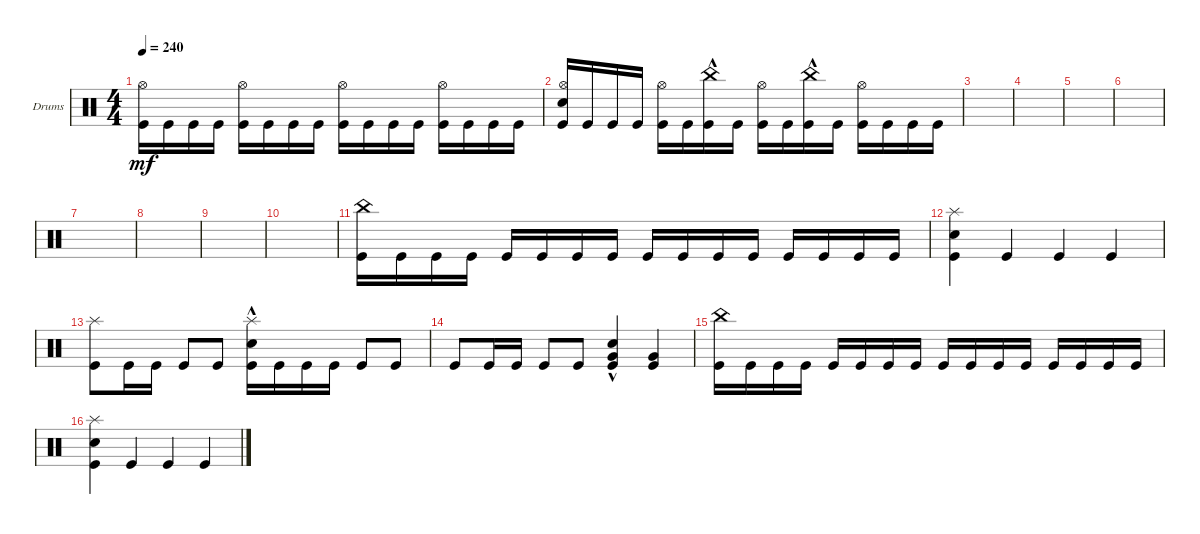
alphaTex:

\defaultSystemsLayout 4
\bracketExtendMode groupsimilarinstruments
\firstSystemTrackNameOrientation horizontal
\otherSystemsTrackNameOrientation horizontal
\track ("Drumkit" "Drums") {mute instrument percussion}
\staff {score}
\articulation defaults
\ts (4 4)
\tempo 240
\clef neutral
\ks c
("Kick (hit)" "Hi-Hat (open)").16{dy mf} "Kick (hit)".16 "Kick (hit)".16 "Kick (hit)".16 ("Kick (hit)" "Hi-Hat (open)").16 "Kick (hit)".16 "Kick (hit)".16 "Kick (hit)".16 ("Kick (hit)" "Hi-Hat (open)").16 "Kick (hit)".16 "Kick (hit)".16 "Kick (hit)".16 ("Kick (hit)" "Hi-Hat (open)").16 "Kick (hit)".16 "Kick (hit)".16 "Kick (hit)".16 |
("Kick (hit)" "Hi-Hat (open)" "Snare (hit) 2").16 "Kick (hit)".16 "Kick (hit)".16 "Kick (hit)".16 ("Kick (hit)" "Hi-Hat (open)").16 "Kick (hit)".16 ("Kick (hit)" "China (hit)"{hac}).16 "Kick (hit)".16 ("Kick (hit)" "Hi-Hat (open)").16 "Kick (hit)".16 ("Kick (hit)" "China (hit)"{hac}).16 "Kick (hit)".16 ("Kick (hit)" "Hi-Hat (open)").16 "Kick (hit)".16 "Kick (hit)".16 "Kick (hit)".16 |
|
|
|
|
|
|
|
|
("Kick (hit)" "China (hit)").16 "Kick (hit)".16 "Kick (hit)".16 "Kick (hit)".16 "Kick (hit)".16 "Kick (hit)".16 "Kick (hit)".16 "Kick (hit)".16 "Kick (hit)".16 "Kick (hit)".16 "Kick (hit)".16 "Kick (hit)".16 "Kick (hit)".16 "Kick (hit)".16 "Kick (hit)".16 "Kick (hit)".16 |
("Snare (hit) 2" "Kick (hit)" "Splash (hit)").4 "Kick (hit)".4 "Kick (hit)".4 "Kick (hit)".4 |
("Kick (hit)" "Splash (hit)").8 "Kick (hit)".16 "Kick (hit)".16 "Kick (hit)".8 "Kick (hit)".8 ("Kick (hit)" "Splash (hit)" "Snare (hit) 2"{hac}).16 "Kick (hit)".16 "Kick (hit)".16 "Kick (hit)".16 "Kick (hit)".8 "Kick (hit)".8 |
"Kick (hit)".8 "Kick (hit)".16 "Kick (hit)".16 "Kick (hit)".8 "Kick (hit)".8 ("Kick (hit)" "Very Low Tom (hit)" "Snare (hit) 2"{hac}).4 ("Kick (hit)" "Very Low Tom (hit)").4 |
("Kick (hit)" "China (hit)").16 "Kick (hit)".16 "Kick (hit)".16 "Kick (hit)".16 "Kick (hit)".16 "Kick (hit)".16 "Kick (hit)".16 "Kick (hit)".16 "Kick (hit)".16 "Kick (hit)".16 "Kick (hit)".16 "Kick (hit)".16 "Kick (hit)".16 "Kick (hit)".16 "Kick (hit)".16 "Kick (hit)".16 |
("Snare (hit) 2" "Kick (hit)" "Splash (hit)").4 "Kick (hit)".4 "Kick (hit)".4 "Kick (hit)".4
